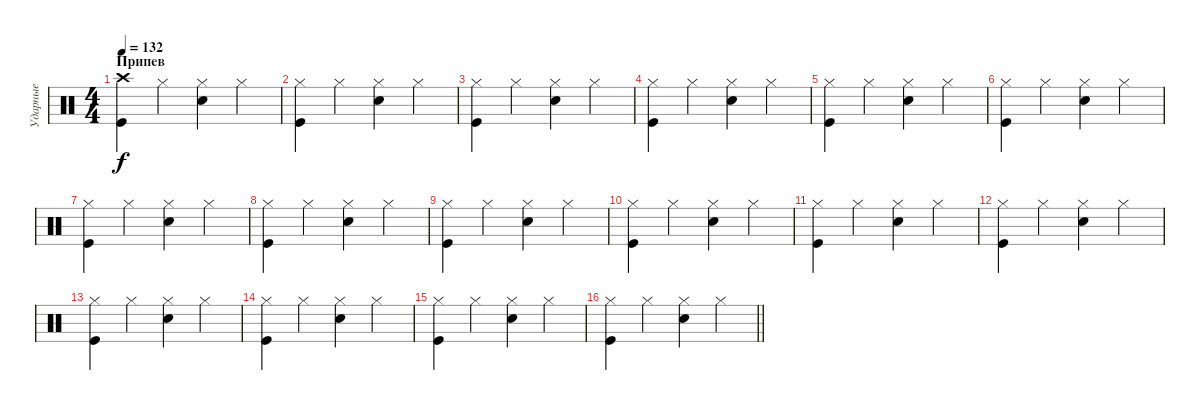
\track ("Ударные" "Ударные") {instrument percussion}
\staff {score}
\articulation defaults
\ts (4 4)
\section ("" "Припев")
\tempo 132
\clef neutral
\ks c
("Crash high (hit)" "Kick (hit)").4{dy f} "Hi-Hat (closed)".4 ("Hi-Hat (closed)" "Snare (hit) 2").4 "Hi-Hat (closed)".4 |
("Hi-Hat (closed)" "Kick (hit)").4 "Hi-Hat (closed)".4 ("Hi-Hat (closed)" "Snare (hit) 2").4 "Hi-Hat (closed)".4 |
("Hi-Hat (closed)" "Kick (hit)").4 "Hi-Hat (closed)".4 ("Hi-Hat (closed)" "Snare (hit) 2").4 "Hi-Hat (closed)".4 |
("Hi-Hat (closed)" "Kick (hit)").4 "Hi-Hat (closed)".4 ("Hi-Hat (closed)" "Snare (hit) 2").4 "Hi-Hat (closed)".4 |
("Hi-Hat (closed)" "Kick (hit)").4 "Hi-Hat (closed)".4 ("Hi-Hat (closed)" "Snare (hit) 2").4 "Hi-Hat (closed)".4 |
("Hi-Hat (closed)" "Kick (hit)").4 "Hi-Hat (closed)".4 ("Hi-Hat (closed)" "Snare (hit) 2").4 "Hi-Hat (closed)".4 |
("Hi-Hat (closed)" "Kick (hit)").4 "Hi-Hat (closed)".4 ("Hi-Hat (closed)" "Snare (hit) 2").4 "Hi-Hat (closed)".4 |
("Hi-Hat (closed)" "Kick (hit)").4 "Hi-Hat (closed)".4 ("Hi-Hat (closed)" "Snare (hit) 2").4 "Hi-Hat (closed)".4 |
("Hi-Hat (closed)" "Kick (hit)").4 "Hi-Hat (closed)".4 ("Hi-Hat (closed)" "Snare (hit) 2").4 "Hi-Hat (closed)".4 |
("Hi-Hat (closed)" "Kick (hit)").4 "Hi-Hat (closed)".4 ("Hi-Hat (closed)" "Snare (hit) 2").4 "Hi-Hat (closed)".4 |
("Hi-Hat (closed)" "Kick (hit)").4 "Hi-Hat (closed)".4 ("Hi-Hat (closed)" "Snare (hit) 2").4 "Hi-Hat (closed)".4 |
("Hi-Hat (closed)" "Kick (hit)").4 "Hi-Hat (closed)".4 ("Hi-Hat (closed)" "Snare (hit) 2").4 "Hi-Hat (closed)".4 |
("Hi-Hat (closed)" "Kick (hit)").4 "Hi-Hat (closed)".4 ("Hi-Hat (closed)" "Snare (hit) 2").4 "Hi-Hat (closed)".4 |
("Hi-Hat (closed)" "Kick (hit)").4 "Hi-Hat (closed)".4 ("Hi-Hat (closed)" "Snare (hit) 2").4 "Hi-Hat (closed)".4 |
("Hi-Hat (closed)" "Kick (hit)").4 "Hi-Hat (closed)".4 ("Hi-Hat (closed)" "Snare (hit) 2").4 "Hi-Hat (closed)".4 |
\barLineRight lightlight
("Hi-Hat (closed)" "Kick (hit)").4 "Hi-Hat (closed)".4 ("Hi-Hat (closed)" "Snare (hit) 2").4 "Hi-Hat (closed)".4
